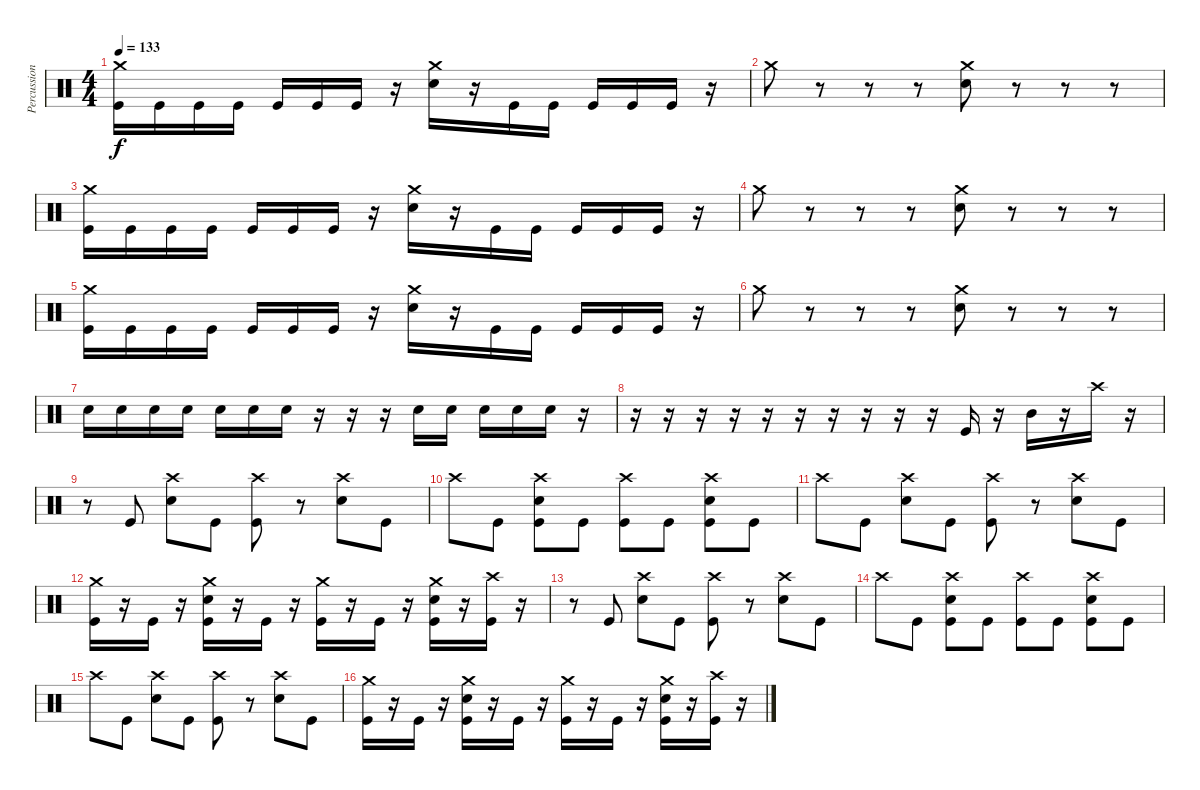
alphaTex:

\track ("Percussion" "Percussion") {instrument percussion}
\staff {score}
\articulation defaults
\ts (4 4)
\tempo 133
\clef neutral
\ks c
("Crash medium (hit)" "Kick (hit)").16{dy f} "Kick (hit)".16 "Kick (hit)".16 "Kick (hit)".16 "Kick (hit)".16 "Kick (hit)".16 "Kick (hit)".16 r.16 ("Crash medium (hit)" "Electric Snare (hit)").16 r.16 "Kick (hit)".16 "Kick (hit)".16 "Kick (hit)".16 "Kick (hit)".16 "Kick (hit)".16 r.16 |
"Crash medium (hit)".8 r.8 r.8 r.8 ("Crash medium (hit)" "Electric Snare (hit)").8 r.8 r.8 r.8 |
("Crash medium (hit)" "Kick (hit)").16 "Kick (hit)".16 "Kick (hit)".16 "Kick (hit)".16 "Kick (hit)".16 "Kick (hit)".16 "Kick (hit)".16 r.16 ("Crash medium (hit)" "Electric Snare (hit)").16 r.16 "Kick (hit)".16 "Kick (hit)".16 "Kick (hit)".16 "Kick (hit)".16 "Kick (hit)".16 r.16 |
"Crash medium (hit)".8 r.8 r.8 r.8 ("Crash medium (hit)" "Electric Snare (hit)").8 r.8 r.8 r.8 |
("Crash medium (hit)" "Kick (hit)").16 "Kick (hit)".16 "Kick (hit)".16 "Kick (hit)".16 "Kick (hit)".16 "Kick (hit)".16 "Kick (hit)".16 r.16 ("Crash medium (hit)" "Electric Snare (hit)").16 r.16 "Kick (hit)".16 "Kick (hit)".16 "Kick (hit)".16 "Kick (hit)".16 "Kick (hit)".16 r.16 |
"Crash medium (hit)".8 r.8 r.8 r.8 ("Crash medium (hit)" "Electric Snare (hit)").8 r.8 r.8 r.8 |
"Electric Snare (hit)".16 "Electric Snare (hit)".16 "Electric Snare (hit)".16 "Electric Snare (hit)".16 "Electric Snare (hit)".16 "Electric Snare (hit)".16 "Electric Snare (hit)".16 r.16 r.16 r.16 "Electric Snare (hit)".16 "Electric Snare (hit)".16 "Electric Snare (hit)".16 "Electric Snare (hit)".16 "Electric Snare (hit)".16 r.16 |
r.16 r.16 r.16 r.16 r.16 r.16 r.16 r.16 r.16 r.16 "Kick (hit)".16 r.16 "Mid Tom (hit)".16 r.16 "Crash high (hit)".16 r.16 |
r.8 "Kick (hit)".8 ("Crash high (hit)" "Electric Snare (hit)").8 "Kick (hit)".8 ("Crash high (hit)" "Kick (hit)").8 r.8 ("Crash high (hit)" "Electric Snare (hit)").8 "Kick (hit)".8 |
"Crash high (hit)".8 "Kick (hit)".8 ("Crash high (hit)" "Electric Snare (hit)" "Kick (hit)").8 "Kick (hit)".8 ("Crash high (hit)" "Kick (hit)").8 "Kick (hit)".8 ("Crash high (hit)" "Electric Snare (hit)" "Kick (hit)").8 "Kick (hit)".8 |
"Crash high (hit)".8 "Kick (hit)".8 ("Crash high (hit)" "Electric Snare (hit)").8 "Kick (hit)".8 ("Crash high (hit)" "Kick (hit)").8 r.8 ("Crash high (hit)" "Electric Snare (hit)").8 "Kick (hit)".8 |
("Crash medium (hit)" "Kick (hit)").16 r.16 "Kick (hit)".16 r.16 ("Crash medium (hit)" "Electric Snare (hit)" "Kick (hit)").16 r.16 "Kick (hit)".16 r.16 ("Crash medium (hit)" "Kick (hit)").16 r.16 "Kick (hit)".16 r.16 ("Crash medium (hit)" "Electric Snare (hit)" "Kick (hit)").16 r.16 ("Crash high (hit)" "Kick (hit)").16 r.16 |
r.8 "Kick (hit)".8 ("Crash high (hit)" "Electric Snare (hit)").8 "Kick (hit)".8 ("Crash high (hit)" "Kick (hit)").8 r.8 ("Crash high (hit)" "Electric Snare (hit)").8 "Kick (hit)".8 |
"Crash high (hit)".8 "Kick (hit)".8 ("Crash high (hit)" "Electric Snare (hit)" "Kick (hit)").8 "Kick (hit)".8 ("Crash high (hit)" "Kick (hit)").8 "Kick (hit)".8 ("Crash high (hit)" "Electric Snare (hit)" "Kick (hit)").8 "Kick (hit)".8 |
"Crash high (hit)".8 "Kick (hit)".8 ("Crash high (hit)" "Electric Snare (hit)").8 "Kick (hit)".8 ("Crash high (hit)" "Kick (hit)").8 r.8 ("Crash high (hit)" "Electric Snare (hit)").8 "Kick (hit)".8 |
("Crash medium (hit)" "Kick (hit)").16 r.16 "Kick (hit)".16 r.16 ("Crash medium (hit)" "Electric Snare (hit)" "Kick (hit)").16 r.16 "Kick (hit)".16 r.16 ("Crash medium (hit)" "Kick (hit)").16 r.16 "Kick (hit)".16 r.16 ("Crash medium (hit)" "Electric Snare (hit)" "Kick (hit)").16 r.16 ("Crash high (hit)" "Kick (hit)").16 r.16
